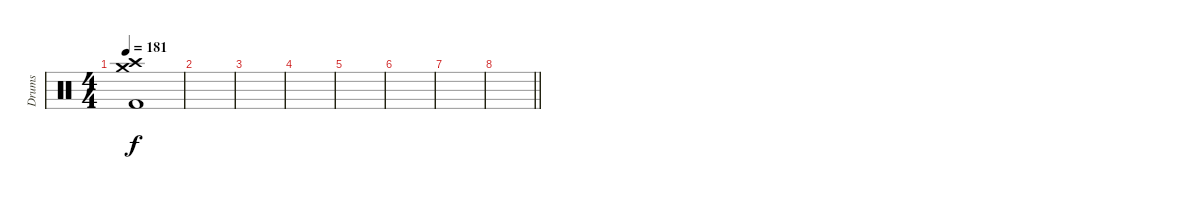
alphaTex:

\track ("Drums" "Drums") {instrument percussion}
\staff {score}
\articulation defaults
\ts (4 4)
\tempo 181
\clef neutral
\ks c
("Kick (hit) 2" "Crash medium (hit)" "Crash high (hit)").1{dy f} |
|
|
|
|
|
|
\barLineRight lightlight
